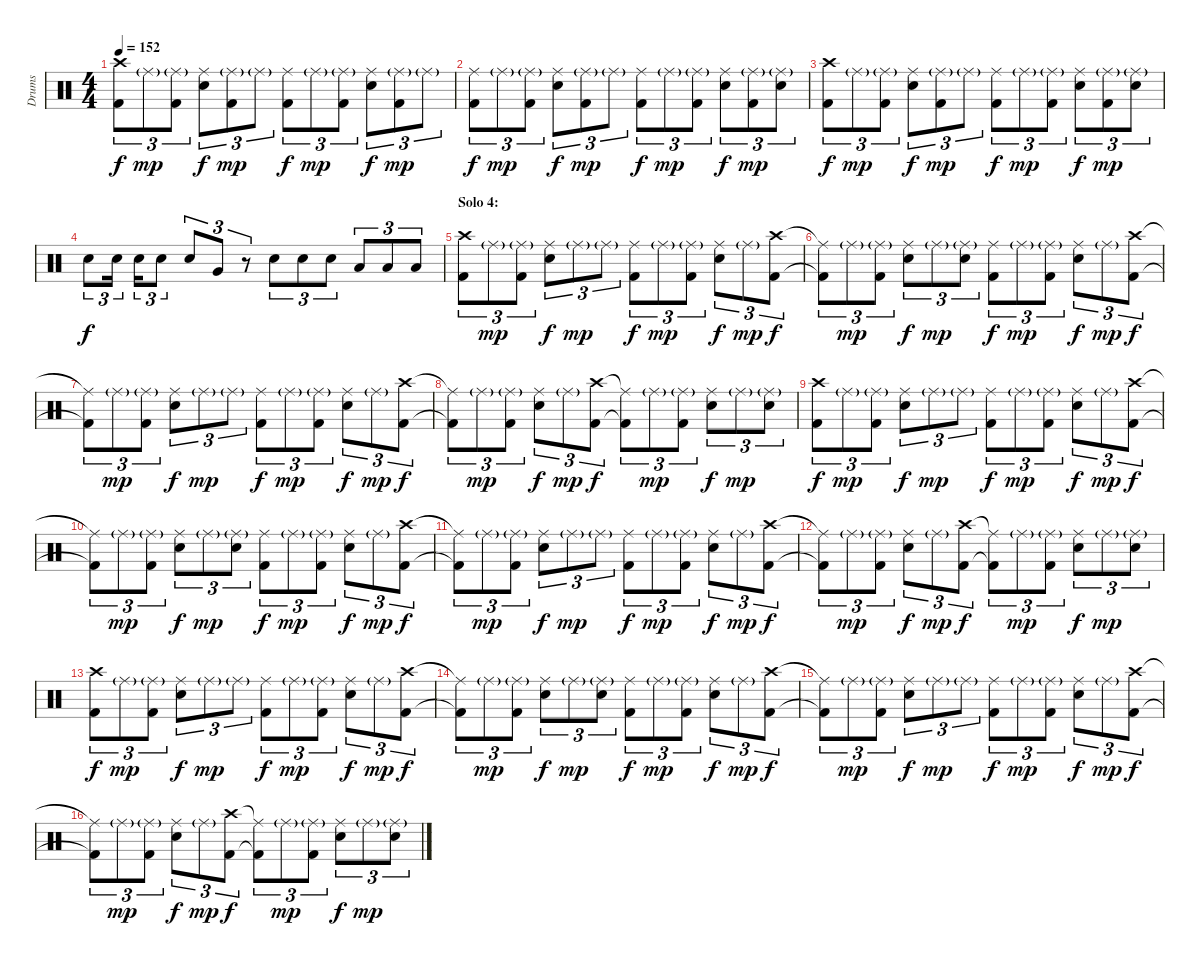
\track ("Drums" "Drums") {instrument percussion}
\staff {score}
\articulation defaults
\ts (4 4)
\tempo 152
\clef neutral
\ks c
("Crash high (hit)" "Kick (hit) 2").8{tu (3 2) dy f} "Ride (middle)"{g}.8{tu (3 2) dy mp} ("Ride (middle)"{g} "Kick (hit) 2").8{tu (3 2)} ("Ride (middle)" "Electric Snare (hit)").8{tu (3 2) dy f} ("Ride (middle)"{g} "Kick (hit) 2").8{tu (3 2) dy mp} "Ride (middle)"{g}.8{tu (3 2)} ("Ride (middle)" "Kick (hit) 2").8{tu (3 2) dy f} "Ride (middle)"{g}.8{tu (3 2) dy mp} ("Ride (middle)"{g} "Kick (hit) 2").8{tu (3 2)} ("Ride (middle)" "Electric Snare (hit)").8{tu (3 2) dy f} ("Ride (middle)"{g} "Kick (hit) 2").8{tu (3 2) dy mp} "Ride (middle)"{g}.8{tu (3 2)} |
("Ride (middle)" "Kick (hit) 2").8{tu (3 2) dy f} "Ride (middle)"{g}.8{tu (3 2) dy mp} ("Ride (middle)"{g} "Kick (hit) 2").8{tu (3 2)} ("Ride (middle)" "Electric Snare (hit)").8{tu (3 2) dy f} ("Ride (middle)"{g} "Kick (hit) 2").8{tu (3 2) dy mp} "Ride (middle)"{g}.8{tu (3 2)} ("Ride (middle)" "Kick (hit) 2").8{tu (3 2) dy f} "Ride (middle)"{g}.8{tu (3 2) dy mp} ("Ride (middle)"{g} "Kick (hit) 2").8{tu (3 2)} ("Ride (middle)" "Electric Snare (hit)").8{tu (3 2) dy f} ("Ride (middle)"{g} "Kick (hit) 2").8{tu (3 2) dy mp} ("Ride (middle)"{g} "Electric Snare (hit)").8{tu (3 2)} |
("Crash high (hit)" "Kick (hit) 2").8{tu (3 2) dy f} "Ride (middle)"{g}.8{tu (3 2) dy mp} ("Ride (middle)"{g} "Kick (hit) 2").8{tu (3 2)} ("Ride (middle)" "Electric Snare (hit)").8{tu (3 2) dy f} ("Ride (middle)"{g} "Kick (hit) 2").8{tu (3 2) dy mp} "Ride (middle)"{g}.8{tu (3 2)} ("Ride (middle)" "Kick (hit) 2").8{tu (3 2) dy f} "Ride (middle)"{g}.8{tu (3 2) dy mp} ("Ride (middle)"{g} "Kick (hit) 2").8{tu (3 2)} ("Ride (middle)" "Electric Snare (hit)").8{tu (3 2) dy f} ("Ride (middle)"{g} "Kick (hit) 2").8{tu (3 2) dy mp} ("Ride (middle)"{g} "Electric Snare (hit)").8{tu (3 2)} |
"Electric Snare (hit)".8{tu (3 2) dy f} "Electric Snare (hit)".16{tu (3 2)} "Electric Snare (hit)".16{tu (3 2)} "Electric Snare (hit)".8{tu (3 2)} "Electric Snare (hit)".8{tu (3 2)} "Very Low Tom (hit)".8{tu (3 2)} r.8{tu (3 2)} "Electric Snare (hit)".8{tu (3 2)} "Electric Snare (hit)".8{tu (3 2)} "Electric Snare (hit)".8{tu (3 2)} "Low Tom (hit)".8{tu (3 2)} "Low Tom (hit)".8{tu (3 2)} "Low Tom (hit)".8{tu (3 2)} |
\section ("" "Solo 4:")
("Crash high (hit)" "Kick (hit) 2").8{tu (3 2)} "Ride (middle)"{g}.8{tu (3 2) dy mp} ("Ride (middle)"{g} "Kick (hit) 2").8{tu (3 2)} ("Ride (middle)" "Electric Snare (hit)").8{tu (3 2) dy f} "Ride (middle)"{g}.8{tu (3 2) dy mp} "Ride (middle)"{g}.8{tu (3 2)} ("Ride (middle)" "Kick (hit) 2").8{tu (3 2) dy f} "Ride (middle)"{g}.8{tu (3 2) dy mp} ("Ride (middle)"{g} "Kick (hit) 2").8{tu (3 2)} ("Ride (middle)" "Electric Snare (hit)").8{tu (3 2) dy f} "Ride (middle)"{g}.8{tu (3 2) dy mp} ("Crash high (hit)" "Kick (hit) 2").8{tu (3 2) dy f} |
("Ride (middle)"{t} "Kick (hit) 2"{t}).8{tu (3 2)} "Ride (middle)"{g}.8{tu (3 2) dy mp} ("Ride (middle)"{g} "Kick (hit) 2").8{tu (3 2)} ("Ride (middle)" "Electric Snare (hit)").8{tu (3 2) dy f} "Ride (middle)"{g}.8{tu (3 2) dy mp} ("Ride (middle)"{g} "Electric Snare (hit)").8{tu (3 2)} ("Ride (middle)" "Kick (hit) 2").8{tu (3 2) dy f} "Ride (middle)"{g}.8{tu (3 2) dy mp} ("Ride (middle)"{g} "Kick (hit) 2").8{tu (3 2)} ("Ride (middle)" "Electric Snare (hit)").8{tu (3 2) dy f} "Ride (middle)"{g}.8{tu (3 2) dy mp} ("Crash high (hit)" "Kick (hit) 2").8{tu (3 2) dy f} |
("Ride (middle)"{t} "Kick (hit) 2"{t}).8{tu (3 2)} "Ride (middle)"{g}.8{tu (3 2) dy mp} ("Ride (middle)"{g} "Kick (hit) 2").8{tu (3 2)} ("Ride (middle)" "Electric Snare (hit)").8{tu (3 2) dy f} "Ride (middle)"{g}.8{tu (3 2) dy mp} "Ride (middle)"{g}.8{tu (3 2)} ("Ride (middle)" "Kick (hit) 2").8{tu (3 2) dy f} "Ride (middle)"{g}.8{tu (3 2) dy mp} ("Ride (middle)"{g} "Kick (hit) 2").8{tu (3 2)} ("Ride (middle)" "Electric Snare (hit)").8{tu (3 2) dy f} "Ride (middle)"{g}.8{tu (3 2) dy mp} ("Crash high (hit)" "Kick (hit) 2").8{tu (3 2) dy f} |
("Ride (middle)"{t} "Kick (hit) 2"{t}).8{tu (3 2)} "Ride (middle)"{g}.8{tu (3 2) dy mp} ("Ride (middle)"{g} "Kick (hit) 2").8{tu (3 2)} ("Ride (middle)" "Electric Snare (hit)").8{tu (3 2) dy f} "Ride (middle)"{g}.8{tu (3 2) dy mp} ("Crash high (hit)" "Kick (hit) 2").8{tu (3 2) dy f} ("Ride (middle)"{t} "Kick (hit) 2"{t}).8{tu (3 2)} "Ride (middle)"{g}.8{tu (3 2) dy mp} ("Ride (middle)"{g} "Kick (hit) 2").8{tu (3 2)} ("Ride (middle)" "Electric Snare (hit)").8{tu (3 2) dy f} "Ride (middle)"{g}.8{tu (3 2) dy mp} ("Ride (middle)"{g} "Electric Snare (hit)").8{tu (3 2)} |
("Crash high (hit)" "Kick (hit) 2").8{tu (3 2) dy f} "Ride (middle)"{g}.8{tu (3 2) dy mp} ("Ride (middle)"{g} "Kick (hit) 2").8{tu (3 2)} ("Ride (middle)" "Electric Snare (hit)").8{tu (3 2) dy f} "Ride (middle)"{g}.8{tu (3 2) dy mp} "Ride (middle)"{g}.8{tu (3 2)} ("Ride (middle)" "Kick (hit) 2").8{tu (3 2) dy f} "Ride (middle)"{g}.8{tu (3 2) dy mp} ("Ride (middle)"{g} "Kick (hit) 2").8{tu (3 2)} ("Ride (middle)" "Electric Snare (hit)").8{tu (3 2) dy f} "Ride (middle)"{g}.8{tu (3 2) dy mp} ("Crash high (hit)" "Kick (hit) 2").8{tu (3 2) dy f} |
("Ride (middle)"{t} "Kick (hit) 2"{t}).8{tu (3 2)} "Ride (middle)"{g}.8{tu (3 2) dy mp} ("Ride (middle)"{g} "Kick (hit) 2").8{tu (3 2)} ("Ride (middle)" "Electric Snare (hit)").8{tu (3 2) dy f} "Ride (middle)"{g}.8{tu (3 2) dy mp} ("Ride (middle)"{g} "Electric Snare (hit)").8{tu (3 2)} ("Ride (middle)" "Kick (hit) 2").8{tu (3 2) dy f} "Ride (middle)"{g}.8{tu (3 2) dy mp} ("Ride (middle)"{g} "Kick (hit) 2").8{tu (3 2)} ("Ride (middle)" "Electric Snare (hit)").8{tu (3 2) dy f} "Ride (middle)"{g}.8{tu (3 2) dy mp} ("Crash high (hit)" "Kick (hit) 2").8{tu (3 2) dy f} |
("Ride (middle)"{t} "Kick (hit) 2"{t}).8{tu (3 2)} "Ride (middle)"{g}.8{tu (3 2) dy mp} ("Ride (middle)"{g} "Kick (hit) 2").8{tu (3 2)} ("Ride (middle)" "Electric Snare (hit)").8{tu (3 2) dy f} "Ride (middle)"{g}.8{tu (3 2) dy mp} "Ride (middle)"{g}.8{tu (3 2)} ("Ride (middle)" "Kick (hit) 2").8{tu (3 2) dy f} "Ride (middle)"{g}.8{tu (3 2) dy mp} ("Ride (middle)"{g} "Kick (hit) 2").8{tu (3 2)} ("Ride (middle)" "Electric Snare (hit)").8{tu (3 2) dy f} "Ride (middle)"{g}.8{tu (3 2) dy mp} ("Crash high (hit)" "Kick (hit) 2").8{tu (3 2) dy f} |
("Ride (middle)"{t} "Kick (hit) 2"{t}).8{tu (3 2)} "Ride (middle)"{g}.8{tu (3 2) dy mp} ("Ride (middle)"{g} "Kick (hit) 2").8{tu (3 2)} ("Ride (middle)" "Electric Snare (hit)").8{tu (3 2) dy f} "Ride (middle)"{g}.8{tu (3 2) dy mp} ("Crash high (hit)" "Kick (hit) 2").8{tu (3 2) dy f} ("Ride (middle)"{t} "Kick (hit) 2"{t}).8{tu (3 2)} "Ride (middle)"{g}.8{tu (3 2) dy mp} ("Ride (middle)"{g} "Kick (hit) 2").8{tu (3 2)} ("Ride (middle)" "Electric Snare (hit)").8{tu (3 2) dy f} "Ride (middle)"{g}.8{tu (3 2) dy mp} ("Ride (middle)"{g} "Electric Snare (hit)").8{tu (3 2)} |
("Crash high (hit)" "Kick (hit) 2").8{tu (3 2) dy f} "Ride (middle)"{g}.8{tu (3 2) dy mp} ("Ride (middle)"{g} "Kick (hit) 2").8{tu (3 2)} ("Ride (middle)" "Electric Snare (hit)").8{tu (3 2) dy f} "Ride (middle)"{g}.8{tu (3 2) dy mp} "Ride (middle)"{g}.8{tu (3 2)} ("Ride (middle)" "Kick (hit) 2").8{tu (3 2) dy f} "Ride (middle)"{g}.8{tu (3 2) dy mp} ("Ride (middle)"{g} "Kick (hit) 2").8{tu (3 2)} ("Ride (middle)" "Electric Snare (hit)").8{tu (3 2) dy f} "Ride (middle)"{g}.8{tu (3 2) dy mp} ("Crash high (hit)" "Kick (hit) 2").8{tu (3 2) dy f} |
("Ride (middle)"{t} "Kick (hit) 2"{t}).8{tu (3 2)} "Ride (middle)"{g}.8{tu (3 2) dy mp} ("Ride (middle)"{g} "Kick (hit) 2").8{tu (3 2)} ("Ride (middle)" "Electric Snare (hit)").8{tu (3 2) dy f} "Ride (middle)"{g}.8{tu (3 2) dy mp} ("Ride (middle)"{g} "Electric Snare (hit)").8{tu (3 2)} ("Ride (middle)" "Kick (hit) 2").8{tu (3 2) dy f} "Ride (middle)"{g}.8{tu (3 2) dy mp} ("Ride (middle)"{g} "Kick (hit) 2").8{tu (3 2)} ("Ride (middle)" "Electric Snare (hit)").8{tu (3 2) dy f} "Ride (middle)"{g}.8{tu (3 2) dy mp} ("Crash high (hit)" "Kick (hit) 2").8{tu (3 2) dy f} |
("Ride (middle)"{t} "Kick (hit) 2"{t}).8{tu (3 2)} "Ride (middle)"{g}.8{tu (3 2) dy mp} ("Ride (middle)"{g} "Kick (hit) 2").8{tu (3 2)} ("Ride (middle)" "Electric Snare (hit)").8{tu (3 2) dy f} "Ride (middle)"{g}.8{tu (3 2) dy mp} "Ride (middle)"{g}.8{tu (3 2)} ("Ride (middle)" "Kick (hit) 2").8{tu (3 2) dy f} "Ride (middle)"{g}.8{tu (3 2) dy mp} ("Ride (middle)"{g} "Kick (hit) 2").8{tu (3 2)} ("Ride (middle)" "Electric Snare (hit)").8{tu (3 2) dy f} "Ride (middle)"{g}.8{tu (3 2) dy mp} ("Crash high (hit)" "Kick (hit) 2").8{tu (3 2) dy f} |
("Ride (middle)"{t} "Kick (hit) 2"{t}).8{tu (3 2)} "Ride (middle)"{g}.8{tu (3 2) dy mp} ("Ride (middle)"{g} "Kick (hit) 2").8{tu (3 2)} ("Ride (middle)" "Electric Snare (hit)").8{tu (3 2) dy f} "Ride (middle)"{g}.8{tu (3 2) dy mp} ("Crash high (hit)" "Kick (hit) 2").8{tu (3 2) dy f} ("Ride (middle)"{t} "Kick (hit) 2"{t}).8{tu (3 2)} "Ride (middle)"{g}.8{tu (3 2) dy mp} ("Ride (middle)"{g} "Kick (hit) 2").8{tu (3 2)} ("Ride (middle)" "Electric Snare (hit)").8{tu (3 2) dy f} "Ride (middle)"{g}.8{tu (3 2) dy mp} ("Ride (middle)"{g} "Electric Snare (hit)").8{tu (3 2)}
